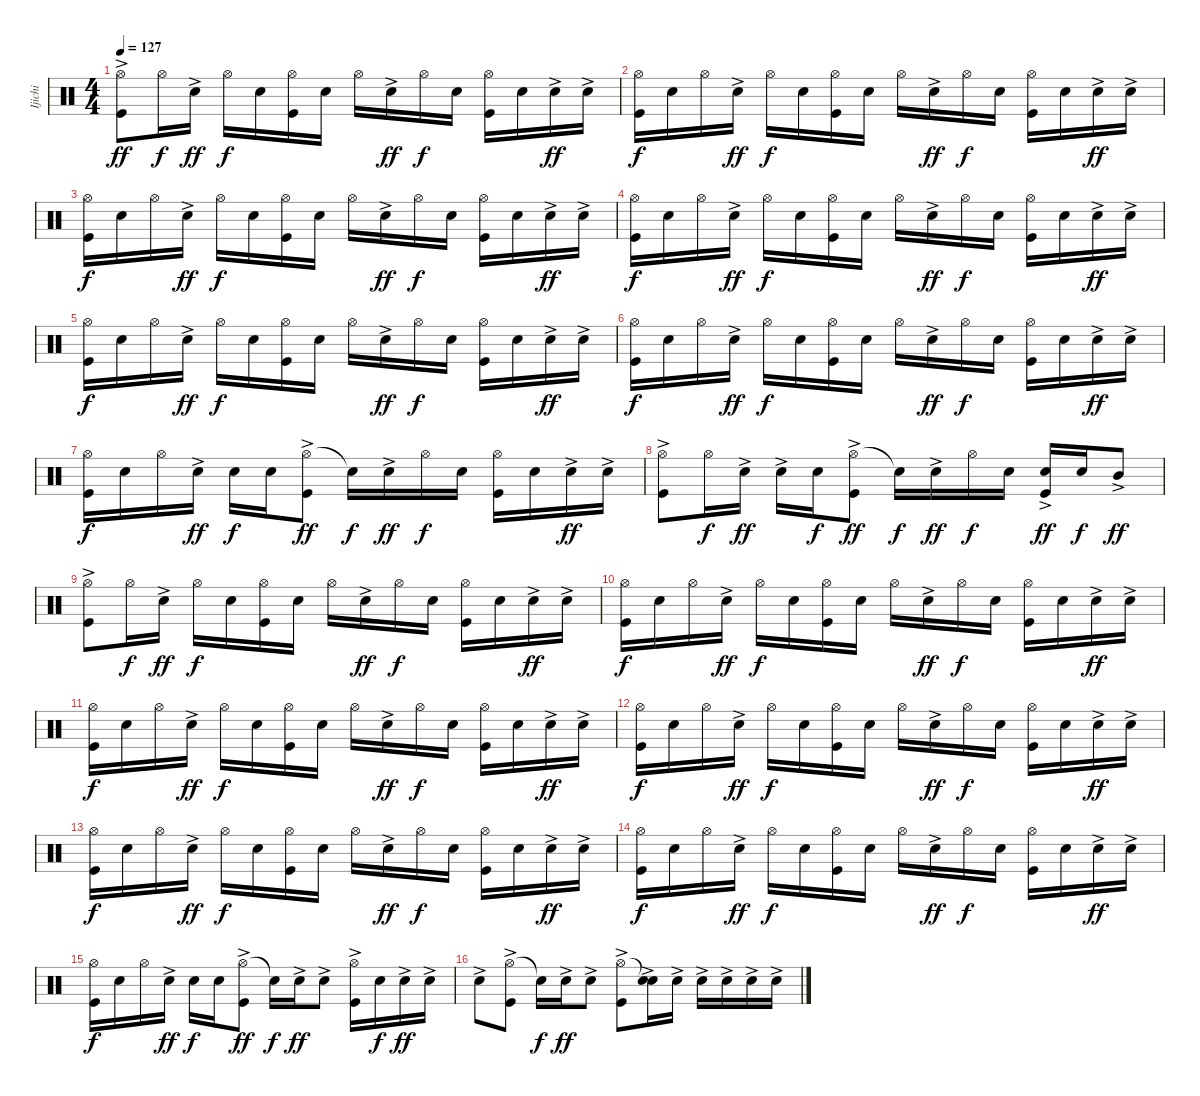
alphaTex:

\track ("Ijichi" "Ijichi") {instrument percussion}
\staff {score}
\articulation defaults
\ts (4 4)
\tempo 127
\clef neutral
\ks c
("Hi-Hat (open)"{ac} "Kick (hit)").8{dy ff} "Hi-Hat (open)".16{dy f} "Electric Snare (hit)"{ac}.16{dy ff} "Hi-Hat (open)".16{dy f} "Electric Snare (hit)".16 ("Hi-Hat (open)" "Kick (hit)").16 "Electric Snare (hit)".16 "Hi-Hat (open)".16 "Electric Snare (hit)"{ac}.16{dy ff} "Hi-Hat (open)".16{dy f} "Electric Snare (hit)".16 ("Hi-Hat (open)" "Kick (hit)").16 "Electric Snare (hit)".16 "Electric Snare (hit)"{ac}.16{dy ff} "Electric Snare (hit)"{ac}.16 |
("Hi-Hat (open)" "Kick (hit)").16{dy f} "Electric Snare (hit)".16 "Hi-Hat (open)".16 "Electric Snare (hit)"{ac}.16{dy ff} "Hi-Hat (open)".16{dy f} "Electric Snare (hit)".16 ("Hi-Hat (open)" "Kick (hit)").16 "Electric Snare (hit)".16 "Hi-Hat (open)".16 "Electric Snare (hit)"{ac}.16{dy ff} "Hi-Hat (open)".16{dy f} "Electric Snare (hit)".16 ("Hi-Hat (open)" "Kick (hit)").16 "Electric Snare (hit)".16 "Electric Snare (hit)"{ac}.16{dy ff} "Electric Snare (hit)"{ac}.16 |
("Hi-Hat (open)" "Kick (hit)").16{dy f} "Electric Snare (hit)".16 "Hi-Hat (open)".16 "Electric Snare (hit)"{ac}.16{dy ff} "Hi-Hat (open)".16{dy f} "Electric Snare (hit)".16 ("Hi-Hat (open)" "Kick (hit)").16 "Electric Snare (hit)".16 "Hi-Hat (open)".16 "Electric Snare (hit)"{ac}.16{dy ff} "Hi-Hat (open)".16{dy f} "Electric Snare (hit)".16 ("Hi-Hat (open)" "Kick (hit)").16 "Electric Snare (hit)".16 "Electric Snare (hit)"{ac}.16{dy ff} "Electric Snare (hit)"{ac}.16 |
("Hi-Hat (open)" "Kick (hit)").16{dy f} "Electric Snare (hit)".16 "Hi-Hat (open)".16 "Electric Snare (hit)"{ac}.16{dy ff} "Hi-Hat (open)".16{dy f} "Electric Snare (hit)".16 ("Hi-Hat (open)" "Kick (hit)").16 "Electric Snare (hit)".16 "Hi-Hat (open)".16 "Electric Snare (hit)"{ac}.16{dy ff} "Hi-Hat (open)".16{dy f} "Electric Snare (hit)".16 ("Hi-Hat (open)" "Kick (hit)").16 "Electric Snare (hit)".16 "Electric Snare (hit)"{ac}.16{dy ff} "Electric Snare (hit)"{ac}.16 |
("Hi-Hat (open)" "Kick (hit)").16{dy f} "Electric Snare (hit)".16 "Hi-Hat (open)".16 "Electric Snare (hit)"{ac}.16{dy ff} "Hi-Hat (open)".16{dy f} "Electric Snare (hit)".16 ("Hi-Hat (open)" "Kick (hit)").16 "Electric Snare (hit)".16 "Hi-Hat (open)".16 "Electric Snare (hit)"{ac}.16{dy ff} "Hi-Hat (open)".16{dy f} "Electric Snare (hit)".16 ("Hi-Hat (open)" "Kick (hit)").16 "Electric Snare (hit)".16 "Electric Snare (hit)"{ac}.16{dy ff} "Electric Snare (hit)"{ac}.16 |
("Hi-Hat (open)" "Kick (hit)").16{dy f} "Electric Snare (hit)".16 "Hi-Hat (open)".16 "Electric Snare (hit)"{ac}.16{dy ff} "Hi-Hat (open)".16{dy f} "Electric Snare (hit)".16 ("Hi-Hat (open)" "Kick (hit)").16 "Electric Snare (hit)".16 "Hi-Hat (open)".16 "Electric Snare (hit)"{ac}.16{dy ff} "Hi-Hat (open)".16{dy f} "Electric Snare (hit)".16 ("Hi-Hat (open)" "Kick (hit)").16 "Electric Snare (hit)".16 "Electric Snare (hit)"{ac}.16{dy ff} "Electric Snare (hit)"{ac}.16 |
("Hi-Hat (open)" "Kick (hit)").16{dy f} "Electric Snare (hit)".16 "Hi-Hat (open)".16 "Electric Snare (hit)"{ac}.16{dy ff} "Electric Snare (hit)".16{dy f} "Electric Snare (hit)".16 ("Hi-Hat (open)"{ac} "Kick (hit)").8{dy ff} "Snare (hit)"{t}.16{dy f} "Electric Snare (hit)"{ac}.16{dy ff} "Hi-Hat (open)".16{dy f} "Electric Snare (hit)".16 ("Hi-Hat (open)" "Kick (hit)").16 "Electric Snare (hit)".16 "Electric Snare (hit)"{ac}.16{dy ff} "Electric Snare (hit)"{ac}.16 |
("Hi-Hat (open)"{ac} "Kick (hit)").8 "Hi-Hat (open)".16{dy f} "Electric Snare (hit)"{ac}.16{dy ff} "Electric Snare (hit)"{ac}.16 "Electric Snare (hit)".16{dy f} ("Hi-Hat (open)"{ac} "Kick (hit)").8{dy ff} "Snare (hit)"{t}.16{dy f} "Electric Snare (hit)"{ac}.16{dy ff} "Hi-Hat (open)".16{dy f} "Electric Snare (hit)".16 ("Electric Snare (hit)"{ac} "Kick (hit)").16{dy ff} "Electric Snare (hit)".16{dy f} "Mid Tom (hit)"{ac}.8{dy ff} |
("Hi-Hat (open)"{ac} "Kick (hit)").8 "Hi-Hat (open)".16{dy f} "Electric Snare (hit)"{ac}.16{dy ff} "Hi-Hat (open)".16{dy f} "Electric Snare (hit)".16 ("Hi-Hat (open)" "Kick (hit)").16 "Electric Snare (hit)".16 "Hi-Hat (open)".16 "Electric Snare (hit)"{ac}.16{dy ff} "Hi-Hat (open)".16{dy f} "Electric Snare (hit)".16 ("Hi-Hat (open)" "Kick (hit)").16 "Electric Snare (hit)".16 "Electric Snare (hit)"{ac}.16{dy ff} "Electric Snare (hit)"{ac}.16 |
("Hi-Hat (open)" "Kick (hit)").16{dy f} "Electric Snare (hit)".16 "Hi-Hat (open)".16 "Electric Snare (hit)"{ac}.16{dy ff} "Hi-Hat (open)".16{dy f} "Electric Snare (hit)".16 ("Hi-Hat (open)" "Kick (hit)").16 "Electric Snare (hit)".16 "Hi-Hat (open)".16 "Electric Snare (hit)"{ac}.16{dy ff} "Hi-Hat (open)".16{dy f} "Electric Snare (hit)".16 ("Hi-Hat (open)" "Kick (hit)").16 "Electric Snare (hit)".16 "Electric Snare (hit)"{ac}.16{dy ff} "Electric Snare (hit)"{ac}.16 |
("Hi-Hat (open)" "Kick (hit)").16{dy f} "Electric Snare (hit)".16 "Hi-Hat (open)".16 "Electric Snare (hit)"{ac}.16{dy ff} "Hi-Hat (open)".16{dy f} "Electric Snare (hit)".16 ("Hi-Hat (open)" "Kick (hit)").16 "Electric Snare (hit)".16 "Hi-Hat (open)".16 "Electric Snare (hit)"{ac}.16{dy ff} "Hi-Hat (open)".16{dy f} "Electric Snare (hit)".16 ("Hi-Hat (open)" "Kick (hit)").16 "Electric Snare (hit)".16 "Electric Snare (hit)"{ac}.16{dy ff} "Electric Snare (hit)"{ac}.16 |
("Hi-Hat (open)" "Kick (hit)").16{dy f} "Electric Snare (hit)".16 "Hi-Hat (open)".16 "Electric Snare (hit)"{ac}.16{dy ff} "Hi-Hat (open)".16{dy f} "Electric Snare (hit)".16 ("Hi-Hat (open)" "Kick (hit)").16 "Electric Snare (hit)".16 "Hi-Hat (open)".16 "Electric Snare (hit)"{ac}.16{dy ff} "Hi-Hat (open)".16{dy f} "Electric Snare (hit)".16 ("Hi-Hat (open)" "Kick (hit)").16 "Electric Snare (hit)".16 "Electric Snare (hit)"{ac}.16{dy ff} "Electric Snare (hit)"{ac}.16 |
("Hi-Hat (open)" "Kick (hit)").16{dy f} "Electric Snare (hit)".16 "Hi-Hat (open)".16 "Electric Snare (hit)"{ac}.16{dy ff} "Hi-Hat (open)".16{dy f} "Electric Snare (hit)".16 ("Hi-Hat (open)" "Kick (hit)").16 "Electric Snare (hit)".16 "Hi-Hat (open)".16 "Electric Snare (hit)"{ac}.16{dy ff} "Hi-Hat (open)".16{dy f} "Electric Snare (hit)".16 ("Hi-Hat (open)" "Kick (hit)").16 "Electric Snare (hit)".16 "Electric Snare (hit)"{ac}.16{dy ff} "Electric Snare (hit)"{ac}.16 |
("Hi-Hat (open)" "Kick (hit)").16{dy f} "Electric Snare (hit)".16 "Hi-Hat (open)".16 "Electric Snare (hit)"{ac}.16{dy ff} "Hi-Hat (open)".16{dy f} "Electric Snare (hit)".16 ("Hi-Hat (open)" "Kick (hit)").16 "Electric Snare (hit)".16 "Hi-Hat (open)".16 "Electric Snare (hit)"{ac}.16{dy ff} "Hi-Hat (open)".16{dy f} "Electric Snare (hit)".16 ("Hi-Hat (open)" "Kick (hit)").16 "Electric Snare (hit)".16 "Electric Snare (hit)"{ac}.16{dy ff} "Electric Snare (hit)"{ac}.16 |
("Hi-Hat (open)" "Kick (hit)").16{dy f} "Electric Snare (hit)".16 "Hi-Hat (open)".16 "Electric Snare (hit)"{ac}.16{dy ff} "Electric Snare (hit)".16{dy f} "Electric Snare (hit)".16 ("Hi-Hat (open)"{ac} "Kick (hit)").8{dy ff} "Snare (hit)"{t}.16{dy f} "Electric Snare (hit)"{ac}.16{dy ff} "Electric Snare (hit)"{ac}.8 ("Hi-Hat (open)"{ac} "Kick (hit)").16 "Electric Snare (hit)".16{dy f} "Electric Snare (hit)"{ac}.16{dy ff} "Electric Snare (hit)"{ac}.16 |
"Electric Snare (hit)"{ac}.8 ("Hi-Hat (open)"{ac} "Kick (hit)").8 "Snare (hit)"{t}.16{dy f} "Electric Snare (hit)"{ac}.16{dy ff} "Electric Snare (hit)"{ac}.8 ("Hi-Hat (open)"{ac} "Kick (hit)").8 ("Snare (hit)"{t} "Electric Snare (hit)"{ac}).16 "Electric Snare (hit)"{ac}.16 "Electric Snare (hit)"{ac}.16 "Electric Snare (hit)"{ac}.16 "Electric Snare (hit)"{ac}.16 "Electric Snare (hit)"{ac}.16
